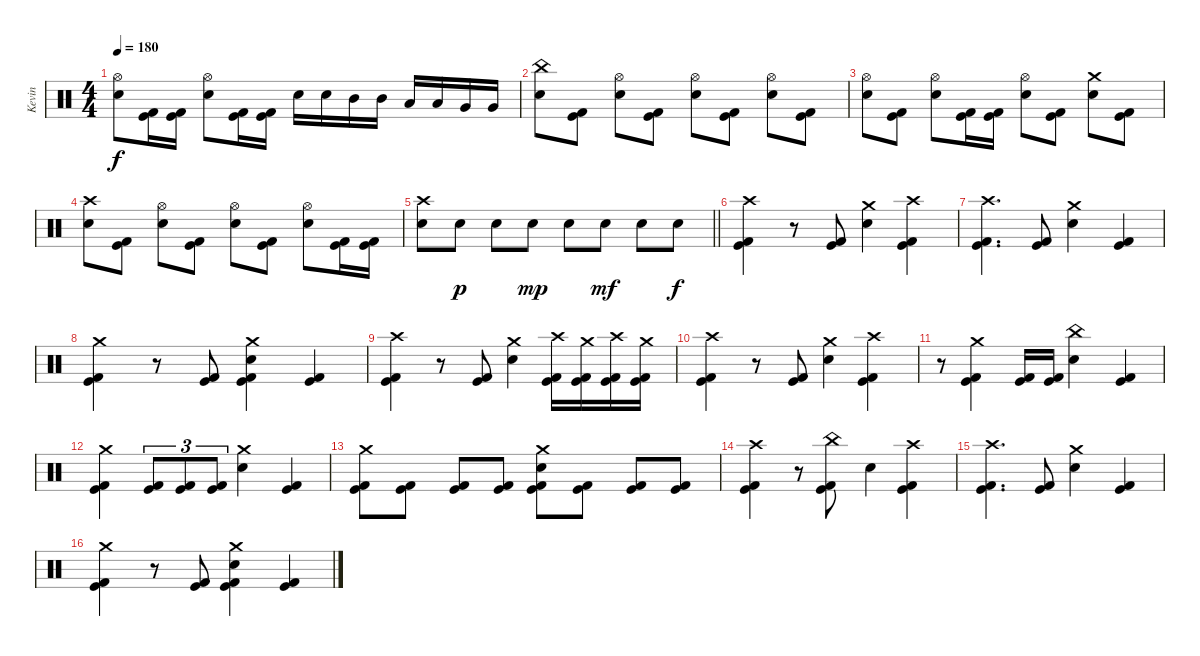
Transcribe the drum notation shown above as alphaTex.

\track ("Kevin" "Kevin") {instrument percussion}
\staff {score}
\articulation defaults
\ts (4 4)
\tempo 180
\clef neutral
\ks c
("Hi-Hat (open)" "Electric Snare (hit)").8{dy f} ("Kick (hit)" "Kick (hit) 2").16 ("Kick (hit)" "Kick (hit) 2").16 ("Hi-Hat (open)" "Electric Snare (hit)").8 ("Kick (hit)" "Kick (hit) 2").16 ("Kick (hit)" "Kick (hit) 2").16 "Electric Snare (hit)".16 "Electric Snare (hit)".16 "Mid Tom (hit)".16 "Mid Tom (hit)".16 "Low Tom (hit)".16 "Low Tom (hit)".16 "Very Low Tom (hit)".16 "Very Low Tom (hit)".16 |
("China (hit)" "Electric Snare (hit)").8 ("Kick (hit)" "Kick (hit) 2").8 ("Hi-Hat (open)" "Electric Snare (hit)").8 ("Kick (hit)" "Kick (hit) 2").8 ("Hi-Hat (open)" "Electric Snare (hit)").8 ("Kick (hit)" "Kick (hit) 2").8 ("Hi-Hat (open)" "Electric Snare (hit)").8 ("Kick (hit)" "Kick (hit) 2").8 |
("Hi-Hat (open)" "Electric Snare (hit)").8 ("Kick (hit)" "Kick (hit) 2").8 ("Hi-Hat (open)" "Electric Snare (hit)").8 ("Kick (hit)" "Kick (hit) 2").16 ("Kick (hit)" "Kick (hit) 2").16 ("Hi-Hat (open)" "Electric Snare (hit)").8 ("Kick (hit)" "Kick (hit) 2").8 ("Crash medium (hit)" "Electric Snare (hit)").8 ("Kick (hit)" "Kick (hit) 2").8 |
("Crash high (hit)" "Electric Snare (hit)").8 ("Kick (hit)" "Kick (hit) 2").8 ("Hi-Hat (open)" "Electric Snare (hit)").8 ("Kick (hit)" "Kick (hit) 2").8 ("Hi-Hat (open)" "Electric Snare (hit)").8 ("Kick (hit)" "Kick (hit) 2").8 ("Hi-Hat (open)" "Electric Snare (hit)").8 ("Kick (hit)" "Kick (hit) 2").16 ("Kick (hit)" "Kick (hit) 2").16 |
\barLineRight lightlight
("Crash high (hit)" "Electric Snare (hit)").8 "Electric Snare (hit)".8{dy p} "Electric Snare (hit)".8 "Electric Snare (hit)".8{dy mp} "Electric Snare (hit)".8 "Electric Snare (hit)".8{dy mf} "Electric Snare (hit)".8 "Electric Snare (hit)".8{dy f} |
\section ("" "")
("Crash high (hit)" "Kick (hit)" "Kick (hit) 2").4 r.8 ("Kick (hit)" "Kick (hit) 2").8 ("Crash medium (hit)" "Electric Snare (hit)").4 ("Crash high (hit)" "Kick (hit)" "Kick (hit) 2").4 |
("Crash high (hit)" "Kick (hit)" "Kick (hit) 2").4{d} ("Kick (hit)" "Kick (hit) 2").8 ("Crash medium (hit)" "Electric Snare (hit)").4 ("Kick (hit)" "Kick (hit) 2").4 |
("Crash medium (hit)" "Kick (hit)" "Kick (hit) 2").4 r.8 ("Kick (hit)" "Kick (hit) 2").8 ("Crash medium (hit)" "Electric Snare (hit)" "Kick (hit)" "Kick (hit) 2").4 ("Kick (hit)" "Kick (hit) 2").4 |
("Crash high (hit)" "Kick (hit)" "Kick (hit) 2").4 r.8 ("Kick (hit)" "Kick (hit) 2").8 ("Crash medium (hit)" "Electric Snare (hit)").4 ("Crash high (hit)" "Kick (hit)" "Kick (hit) 2").16 ("Crash medium (hit)" "Kick (hit)" "Kick (hit) 2").16 ("Crash high (hit)" "Kick (hit)" "Kick (hit) 2").16 ("Crash medium (hit)" "Kick (hit)" "Kick (hit) 2").16 |
("Crash high (hit)" "Kick (hit)" "Kick (hit) 2").4 r.8 ("Kick (hit)" "Kick (hit) 2").8 ("Crash medium (hit)" "Electric Snare (hit)").4 ("Crash high (hit)" "Kick (hit)" "Kick (hit) 2").4 |
r.8 ("Crash medium (hit)" "Kick (hit)" "Kick (hit) 2").4 ("Kick (hit)" "Kick (hit) 2").16 ("Kick (hit)" "Kick (hit) 2").16 ("China (hit)" "Electric Snare (hit)").4 ("Kick (hit)" "Kick (hit) 2").4 |
("Crash medium (hit)" "Kick (hit)" "Kick (hit) 2").4 ("Kick (hit)" "Kick (hit) 2").8{tu (3 2)} ("Kick (hit)" "Kick (hit) 2").8{tu (3 2)} ("Kick (hit)" "Kick (hit) 2").8{tu (3 2)} ("Crash medium (hit)" "Electric Snare (hit)").4 ("Kick (hit)" "Kick (hit) 2").4 |
("Crash medium (hit)" "Kick (hit)" "Kick (hit) 2").8 ("Kick (hit)" "Kick (hit) 2").8 ("Kick (hit)" "Kick (hit) 2").8 ("Kick (hit)" "Kick (hit) 2").8 ("Crash medium (hit)" "Electric Snare (hit)" "Kick (hit)" "Kick (hit) 2").8 ("Kick (hit)" "Kick (hit) 2").8 ("Kick (hit)" "Kick (hit) 2").8 ("Kick (hit)" "Kick (hit) 2").8 |
("Crash high (hit)" "Kick (hit)" "Kick (hit) 2").4 r.8 ("China (hit)" "Kick (hit)" "Kick (hit) 2").8 "Electric Snare (hit)".4 ("Crash high (hit)" "Kick (hit)" "Kick (hit) 2").4 |
("Crash high (hit)" "Kick (hit)" "Kick (hit) 2").4{d} ("Kick (hit)" "Kick (hit) 2").8 ("Crash medium (hit)" "Electric Snare (hit)").4 ("Kick (hit)" "Kick (hit) 2").4 |
("Crash medium (hit)" "Kick (hit)" "Kick (hit) 2").4 r.8 ("Kick (hit)" "Kick (hit) 2").8 ("Crash medium (hit)" "Electric Snare (hit)" "Kick (hit)" "Kick (hit) 2").4 ("Kick (hit)" "Kick (hit) 2").4
